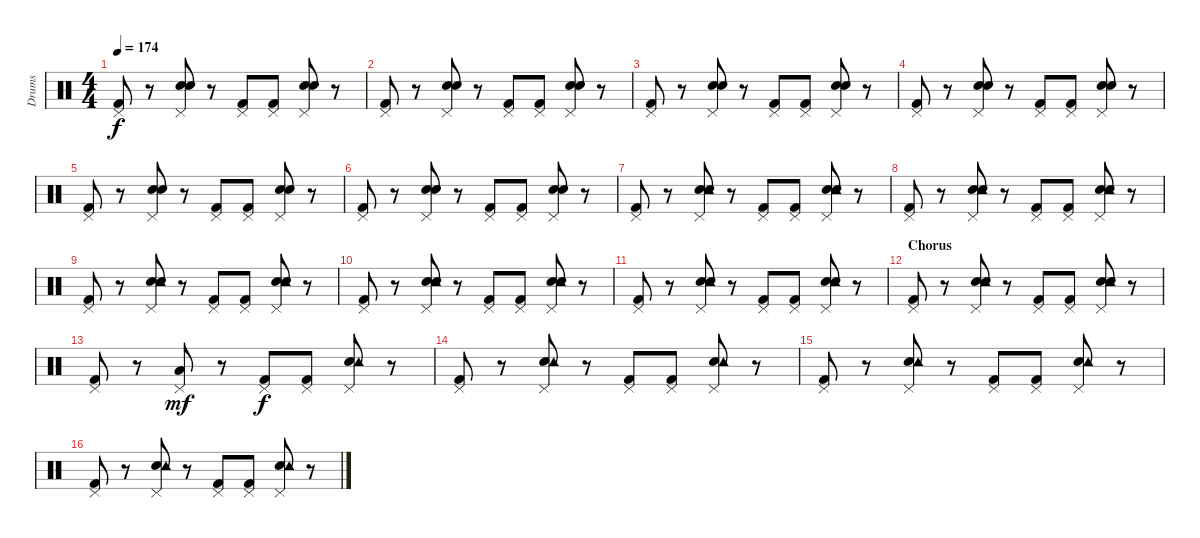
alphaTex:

\track ("Drums" "Drums") {instrument percussion}
\staff {score}
\articulation defaults
\ts (4 4)
\tempo 174
\clef neutral
\ks c
("Kick (hit) 2" "Pedal Hi-Hat (hit)").8{dy f} r.8 ("Snare (hit) 2" "Pedal Hi-Hat (hit)" "Hand Clap (hit)").8 r.8 ("Kick (hit) 2" "Pedal Hi-Hat (hit)").8 ("Kick (hit) 2" "Pedal Hi-Hat (hit)").8 ("Snare (hit) 2" "Pedal Hi-Hat (hit)" "Hand Clap (hit)").8 r.8 |
("Kick (hit) 2" "Pedal Hi-Hat (hit)").8 r.8 ("Snare (hit) 2" "Pedal Hi-Hat (hit)" "Hand Clap (hit)").8 r.8 ("Kick (hit) 2" "Pedal Hi-Hat (hit)").8 ("Kick (hit) 2" "Pedal Hi-Hat (hit)").8 ("Snare (hit) 2" "Pedal Hi-Hat (hit)" "Hand Clap (hit)").8 r.8 |
("Kick (hit) 2" "Pedal Hi-Hat (hit)").8 r.8 ("Snare (hit) 2" "Pedal Hi-Hat (hit)" "Hand Clap (hit)").8 r.8 ("Kick (hit) 2" "Pedal Hi-Hat (hit)").8 ("Kick (hit) 2" "Pedal Hi-Hat (hit)").8 ("Snare (hit) 2" "Pedal Hi-Hat (hit)" "Hand Clap (hit)").8 r.8 |
("Kick (hit) 2" "Pedal Hi-Hat (hit)").8 r.8 ("Snare (hit) 2" "Pedal Hi-Hat (hit)" "Hand Clap (hit)").8 r.8 ("Kick (hit) 2" "Pedal Hi-Hat (hit)").8 ("Kick (hit) 2" "Pedal Hi-Hat (hit)").8 ("Snare (hit) 2" "Pedal Hi-Hat (hit)" "Hand Clap (hit)").8 r.8 |
("Kick (hit) 2" "Pedal Hi-Hat (hit)").8 r.8 ("Snare (hit) 2" "Pedal Hi-Hat (hit)" "Hand Clap (hit)").8 r.8 ("Kick (hit) 2" "Pedal Hi-Hat (hit)").8 ("Kick (hit) 2" "Pedal Hi-Hat (hit)").8 ("Snare (hit) 2" "Pedal Hi-Hat (hit)" "Hand Clap (hit)").8 r.8 |
("Kick (hit) 2" "Pedal Hi-Hat (hit)").8 r.8 ("Snare (hit) 2" "Pedal Hi-Hat (hit)" "Hand Clap (hit)").8 r.8 ("Kick (hit) 2" "Pedal Hi-Hat (hit)").8 ("Kick (hit) 2" "Pedal Hi-Hat (hit)").8 ("Snare (hit) 2" "Pedal Hi-Hat (hit)" "Hand Clap (hit)").8 r.8 |
("Kick (hit) 2" "Pedal Hi-Hat (hit)").8 r.8 ("Snare (hit) 2" "Pedal Hi-Hat (hit)" "Hand Clap (hit)" "Tambourine (hit)").8 r.8 ("Kick (hit) 2" "Pedal Hi-Hat (hit)").8 ("Kick (hit) 2" "Pedal Hi-Hat (hit)").8 ("Snare (hit) 2" "Pedal Hi-Hat (hit)" "Hand Clap (hit)" "Tambourine (hit)").8 r.8 |
("Kick (hit) 2" "Pedal Hi-Hat (hit)").8 r.8 ("Snare (hit) 2" "Pedal Hi-Hat (hit)" "Hand Clap (hit)" "Tambourine (hit)").8 r.8 ("Kick (hit) 2" "Pedal Hi-Hat (hit)").8 ("Kick (hit) 2" "Pedal Hi-Hat (hit)").8 ("Snare (hit) 2" "Pedal Hi-Hat (hit)" "Hand Clap (hit)" "Tambourine (hit)").8 r.8 |
("Kick (hit) 2" "Pedal Hi-Hat (hit)").8 r.8 ("Snare (hit) 2" "Pedal Hi-Hat (hit)" "Hand Clap (hit)" "Tambourine (hit)").8 r.8 ("Kick (hit) 2" "Pedal Hi-Hat (hit)").8 ("Kick (hit) 2" "Pedal Hi-Hat (hit)").8 ("Snare (hit) 2" "Pedal Hi-Hat (hit)" "Hand Clap (hit)" "Tambourine (hit)").8 r.8 |
("Kick (hit) 2" "Pedal Hi-Hat (hit)").8 r.8 ("Snare (hit) 2" "Pedal Hi-Hat (hit)" "Hand Clap (hit)" "Tambourine (hit)").8 r.8 ("Kick (hit) 2" "Pedal Hi-Hat (hit)").8 ("Kick (hit) 2" "Pedal Hi-Hat (hit)").8 ("Snare (hit) 2" "Pedal Hi-Hat (hit)" "Hand Clap (hit)" "Tambourine (hit)").8 r.8 |
("Kick (hit) 2" "Pedal Hi-Hat (hit)").8 r.8 ("Snare (hit) 2" "Pedal Hi-Hat (hit)" "Hand Clap (hit)" "Tambourine (hit)").8 r.8 ("Kick (hit) 2" "Pedal Hi-Hat (hit)").8 ("Kick (hit) 2" "Pedal Hi-Hat (hit)").8 ("Snare (hit) 2" "Pedal Hi-Hat (hit)" "Hand Clap (hit)" "Tambourine (hit)").8 r.8 |
\section ("" "Chorus")
("Kick (hit) 2" "Pedal Hi-Hat (hit)").8 r.8 ("Snare (hit) 2" "Pedal Hi-Hat (hit)" "Hand Clap (hit)" "Tambourine (hit)").8 r.8 ("Kick (hit) 2" "Pedal Hi-Hat (hit)").8 ("Kick (hit) 2" "Pedal Hi-Hat (hit)").8 ("Snare (hit) 2" "Pedal Hi-Hat (hit)" "Hand Clap (hit)" "Tambourine (hit)").8 r.8 |
("Kick (hit) 2" "Pedal Hi-Hat (hit)").8 r.8 ("Low Floor Tom (hit)" "Pedal Hi-Hat (hit)").8{dy mf} r.8 ("Kick (hit) 2" "Pedal Hi-Hat (hit)").8{dy f} ("Kick (hit) 2" "Pedal Hi-Hat (hit)").8 ("Snare (hit) 2" "Pedal Hi-Hat (hit)" "Tambourine (hit)").8 r.8 |
("Kick (hit) 2" "Pedal Hi-Hat (hit)").8 r.8 ("Snare (hit) 2" "Pedal Hi-Hat (hit)" "Tambourine (hit)").8 r.8 ("Kick (hit) 2" "Pedal Hi-Hat (hit)").8 ("Kick (hit) 2" "Pedal Hi-Hat (hit)").8 ("Snare (hit) 2" "Pedal Hi-Hat (hit)" "Tambourine (hit)").8 r.8 |
("Kick (hit) 2" "Pedal Hi-Hat (hit)").8 r.8 ("Snare (hit) 2" "Pedal Hi-Hat (hit)" "Tambourine (hit)").8 r.8 ("Kick (hit) 2" "Pedal Hi-Hat (hit)").8 ("Kick (hit) 2" "Pedal Hi-Hat (hit)").8 ("Snare (hit) 2" "Pedal Hi-Hat (hit)" "Tambourine (hit)").8 r.8 |
("Kick (hit) 2" "Pedal Hi-Hat (hit)").8 r.8 ("Snare (hit) 2" "Pedal Hi-Hat (hit)" "Tambourine (hit)").8 r.8 ("Kick (hit) 2" "Pedal Hi-Hat (hit)").8 ("Kick (hit) 2" "Pedal Hi-Hat (hit)").8 ("Snare (hit) 2" "Pedal Hi-Hat (hit)" "Tambourine (hit)").8 r.8
